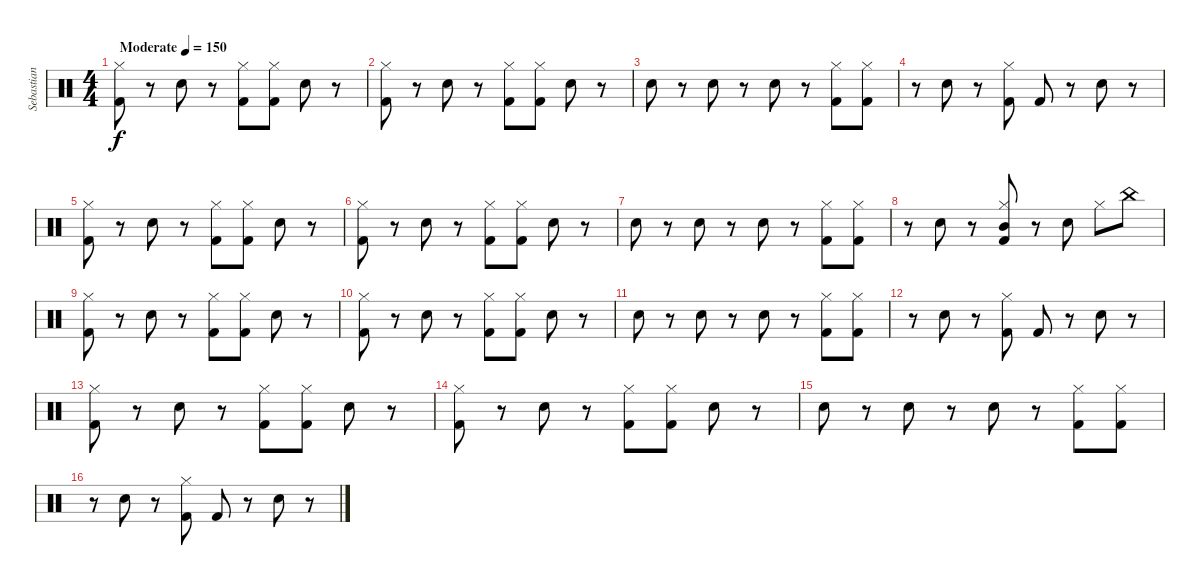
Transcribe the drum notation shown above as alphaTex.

\track ("Sebastian" "Sebastian") {instrument percussion}
\staff {score}
\articulation defaults
\ts (4 4)
\tempo (150 "Moderate")
\clef neutral
\ks c
("Kick (hit) 2" "Hi-Hat (closed)").8{dy f} r.8 "Electric Snare (hit)".8 r.8 ("Kick (hit) 2" "Hi-Hat (closed)").8 ("Kick (hit) 2" "Hi-Hat (closed)").8 "Electric Snare (hit)".8 r.8 |
("Kick (hit) 2" "Hi-Hat (closed)").8 r.8 "Electric Snare (hit)".8 r.8 ("Kick (hit) 2" "Hi-Hat (closed)").8 ("Kick (hit) 2" "Hi-Hat (closed)").8 "Electric Snare (hit)".8 r.8 |
"Electric Snare (hit)".8 r.8 "Electric Snare (hit)".8 r.8 "Electric Snare (hit)".8 r.8 ("Kick (hit) 2" "Hi-Hat (closed)").8 ("Kick (hit) 2" "Hi-Hat (closed)").8 |
r.8 "Electric Snare (hit)".8 r.8 ("Kick (hit) 2" "Hi-Hat (closed)").8 "Kick (hit) 2".8 r.8 "Electric Snare (hit)".8 r.8 |
("Kick (hit) 2" "Hi-Hat (closed)").8 r.8 "Electric Snare (hit)".8 r.8 ("Kick (hit) 2" "Hi-Hat (closed)").8 ("Kick (hit) 2" "Hi-Hat (closed)").8 "Electric Snare (hit)".8 r.8 |
("Kick (hit) 2" "Hi-Hat (closed)").8 r.8 "Electric Snare (hit)".8 r.8 ("Kick (hit) 2" "Hi-Hat (closed)").8 ("Kick (hit) 2" "Hi-Hat (closed)").8 "Electric Snare (hit)".8 r.8 |
"Electric Snare (hit)".8 r.8 "Electric Snare (hit)".8 r.8 "Electric Snare (hit)".8 r.8 ("Kick (hit) 2" "Hi-Hat (closed)").8 ("Kick (hit) 2" "Hi-Hat (closed)").8 |
r.8 "Electric Snare (hit)".8 r.8 ("Kick (hit) 2" "Hi-Hat (closed)" "Mid Tom (hit)").8 r.8 "Electric Snare (hit)".8 "Hi-Hat (closed)".8 "China (hit)".8 |
("Kick (hit) 2" "Hi-Hat (closed)").8 r.8 "Electric Snare (hit)".8 r.8 ("Kick (hit) 2" "Hi-Hat (closed)").8 ("Kick (hit) 2" "Hi-Hat (closed)").8 "Electric Snare (hit)".8 r.8 |
("Kick (hit) 2" "Hi-Hat (closed)").8 r.8 "Electric Snare (hit)".8 r.8 ("Kick (hit) 2" "Hi-Hat (closed)").8 ("Kick (hit) 2" "Hi-Hat (closed)").8 "Electric Snare (hit)".8 r.8 |
"Electric Snare (hit)".8 r.8 "Electric Snare (hit)".8 r.8 "Electric Snare (hit)".8 r.8 ("Kick (hit) 2" "Hi-Hat (closed)").8 ("Kick (hit) 2" "Hi-Hat (closed)").8 |
r.8 "Electric Snare (hit)".8 r.8 ("Kick (hit) 2" "Hi-Hat (closed)").8 "Kick (hit) 2".8 r.8 "Electric Snare (hit)".8 r.8 |
("Kick (hit) 2" "Hi-Hat (closed)").8 r.8 "Electric Snare (hit)".8 r.8 ("Kick (hit) 2" "Hi-Hat (closed)").8 ("Kick (hit) 2" "Hi-Hat (closed)").8 "Electric Snare (hit)".8 r.8 |
("Kick (hit) 2" "Hi-Hat (closed)").8 r.8 "Electric Snare (hit)".8 r.8 ("Kick (hit) 2" "Hi-Hat (closed)").8 ("Kick (hit) 2" "Hi-Hat (closed)").8 "Electric Snare (hit)".8 r.8 |
"Electric Snare (hit)".8 r.8 "Electric Snare (hit)".8 r.8 "Electric Snare (hit)".8 r.8 ("Kick (hit) 2" "Hi-Hat (closed)").8 ("Kick (hit) 2" "Hi-Hat (closed)").8 |
r.8 "Electric Snare (hit)".8 r.8 ("Kick (hit) 2" "Hi-Hat (closed)").8 "Kick (hit) 2".8 r.8 "Electric Snare (hit)".8 r.8
